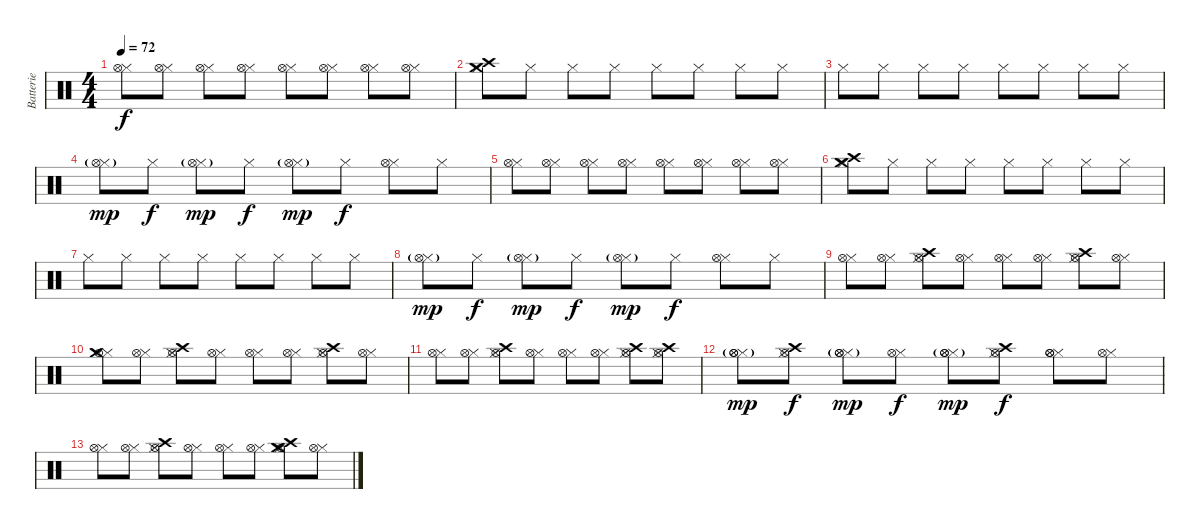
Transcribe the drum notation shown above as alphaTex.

\track ("Batterie" "Batterie") {instrument percussion}
\staff {score}
\articulation defaults
\ts (4 4)
\tempo 72
\clef neutral
\ks c
("Hi-Hat (closed)" "Hi-Hat (open)").8{dy f} ("Hi-Hat (closed)" "Hi-Hat (open)").8 ("Hi-Hat (closed)" "Hi-Hat (open)").8 ("Hi-Hat (closed)" "Hi-Hat (open)").8 ("Hi-Hat (closed)" "Hi-Hat (open)").8 ("Hi-Hat (closed)" "Hi-Hat (open)").8 ("Hi-Hat (closed)" "Hi-Hat (open)").8 ("Hi-Hat (closed)" "Hi-Hat (open)").8 |
("Crash high (hit)" "Hi-Hat (closed)" "Crash medium (hit)").8 "Hi-Hat (closed)".8 "Hi-Hat (closed)".8 "Hi-Hat (closed)".8 "Hi-Hat (closed)".8 "Hi-Hat (closed)".8 "Hi-Hat (closed)".8 "Hi-Hat (closed)".8 |
"Hi-Hat (closed)".8 "Hi-Hat (closed)".8 "Hi-Hat (closed)".8 "Hi-Hat (closed)".8 "Hi-Hat (closed)".8 "Hi-Hat (closed)".8 "Hi-Hat (closed)".8 "Hi-Hat (closed)".8 |
("Hi-Hat (closed)" "Hi-Hat (open)"{g}).8{dy mp} "Hi-Hat (closed)".8{dy f} ("Hi-Hat (closed)" "Hi-Hat (open)"{g}).8{dy mp} "Hi-Hat (closed)".8{dy f} ("Hi-Hat (closed)" "Hi-Hat (open)"{g}).8{dy mp} "Hi-Hat (closed)".8{dy f} ("Hi-Hat (closed)" "Hi-Hat (open)").8 "Hi-Hat (closed)".8 |
("Hi-Hat (closed)" "Hi-Hat (open)").8 ("Hi-Hat (closed)" "Hi-Hat (open)").8 ("Hi-Hat (closed)" "Hi-Hat (open)").8 ("Hi-Hat (closed)" "Hi-Hat (open)").8 ("Hi-Hat (closed)" "Hi-Hat (open)").8 ("Hi-Hat (closed)" "Hi-Hat (open)").8 ("Hi-Hat (closed)" "Hi-Hat (open)").8 ("Hi-Hat (closed)" "Hi-Hat (open)").8 |
("Crash high (hit)" "Hi-Hat (closed)" "Crash medium (hit)").8 "Hi-Hat (closed)".8 "Hi-Hat (closed)".8 "Hi-Hat (closed)".8 "Hi-Hat (closed)".8 "Hi-Hat (closed)".8 "Hi-Hat (closed)".8 "Hi-Hat (closed)".8 |
"Hi-Hat (closed)".8 "Hi-Hat (closed)".8 "Hi-Hat (closed)".8 "Hi-Hat (closed)".8 "Hi-Hat (closed)".8 "Hi-Hat (closed)".8 "Hi-Hat (closed)".8 "Hi-Hat (closed)".8 |
("Hi-Hat (closed)" "Hi-Hat (open)"{g}).8{dy mp} "Hi-Hat (closed)".8{dy f} ("Hi-Hat (closed)" "Hi-Hat (open)"{g}).8{dy mp} "Hi-Hat (closed)".8{dy f} ("Hi-Hat (closed)" "Hi-Hat (open)"{g}).8{dy mp} "Hi-Hat (closed)".8{dy f} ("Hi-Hat (closed)" "Hi-Hat (open)").8 "Hi-Hat (closed)".8 |
("Hi-Hat (closed)" "Hi-Hat (open)").8 ("Hi-Hat (closed)" "Hi-Hat (open)").8 ("Crash high (hit)" "Hi-Hat (closed)" "Hi-Hat (open)").8 ("Hi-Hat (closed)" "Hi-Hat (open)").8 ("Hi-Hat (closed)" "Hi-Hat (open)").8 ("Hi-Hat (closed)" "Hi-Hat (open)").8 ("Crash high (hit)" "Hi-Hat (closed)" "Hi-Hat (open)").8 ("Hi-Hat (closed)" "Hi-Hat (open)").8 |
("Hi-Hat (closed)" "Crash medium (hit)" "Hi-Hat (open)").8 ("Hi-Hat (closed)" "Hi-Hat (open)").8 ("Crash high (hit)" "Hi-Hat (closed)" "Hi-Hat (open)").8 ("Hi-Hat (closed)" "Hi-Hat (open)").8 ("Hi-Hat (closed)" "Hi-Hat (open)").8 ("Hi-Hat (closed)" "Hi-Hat (open)").8 ("Crash high (hit)" "Hi-Hat (closed)" "Hi-Hat (open)").8 ("Hi-Hat (closed)" "Hi-Hat (open)").8 |
("Hi-Hat (closed)" "Hi-Hat (open)").8 ("Hi-Hat (closed)" "Hi-Hat (open)").8 ("Crash high (hit)" "Hi-Hat (closed)" "Hi-Hat (open)").8 ("Hi-Hat (closed)" "Hi-Hat (open)").8 ("Hi-Hat (closed)" "Hi-Hat (open)").8 ("Hi-Hat (closed)" "Hi-Hat (open)").8 ("Crash high (hit)" "Hi-Hat (closed)" "Hi-Hat (open)").8 ("Crash high (hit)" "Hi-Hat (closed)" "Hi-Hat (open)").8 |
("Hi-Hat (closed)" "Hi-Hat (open)"{g} "Hi-Hat (open)").8{dy mp} ("Crash high (hit)" "Hi-Hat (closed)" "Hi-Hat (open)").8{dy f} ("Hi-Hat (closed)" "Hi-Hat (open)"{g} "Hi-Hat (open)").8{dy mp} ("Hi-Hat (closed)" "Hi-Hat (open)").8{dy f} ("Hi-Hat (closed)" "Hi-Hat (open)"{g} "Hi-Hat (open)").8{dy mp} ("Crash high (hit)" "Hi-Hat (closed)" "Hi-Hat (open)").8{dy f} ("Hi-Hat (closed)" "Hi-Hat (open)" "Hi-Hat (open)").8 ("Hi-Hat (closed)" "Hi-Hat (open)").8 |
("Hi-Hat (closed)" "Hi-Hat (open)").8 ("Hi-Hat (closed)" "Hi-Hat (open)").8 ("Crash high (hit)" "Hi-Hat (closed)" "Hi-Hat (open)").8 ("Hi-Hat (closed)" "Hi-Hat (open)").8 ("Hi-Hat (closed)" "Hi-Hat (open)").8 ("Hi-Hat (closed)" "Hi-Hat (open)").8 ("Crash high (hit)" "Hi-Hat (closed)" "Hi-Hat (open)" "Crash medium (hit)").8 ("Hi-Hat (closed)" "Hi-Hat (open)").8
